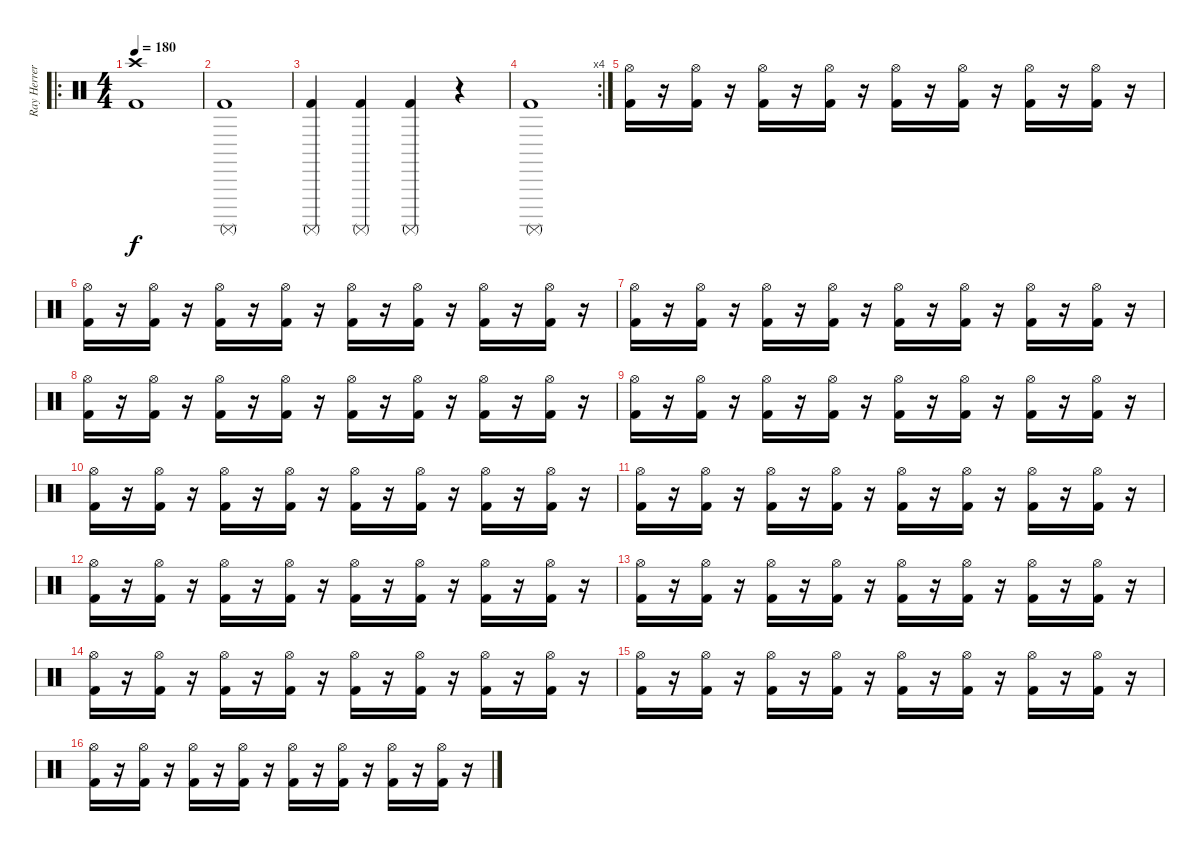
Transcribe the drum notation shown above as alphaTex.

\track ("Ray Herrera" "Ray Herrer") {instrument percussion}
\staff {score}
\articulation defaults
\ro
\ts (4 4)
\tempo 180
\clef neutral
\ks c
("Crash high (hit)" "Kick (hit) 2").1{dy f} |
("Surdo (mute)" "Kick (hit) 2").1 |
("Surdo (mute)" "Kick (hit) 2").4 ("Surdo (mute)" "Kick (hit) 2").4 ("Surdo (mute)" "Kick (hit) 2").4 r.4 |
\rc 4
("Surdo (mute)" "Kick (hit) 2").1 |
("Hi-Hat (open)" "Kick (hit) 2").16 r.16 ("Hi-Hat (open)" "Kick (hit) 2").16 r.16 ("Hi-Hat (open)" "Kick (hit) 2").16 r.16 ("Hi-Hat (open)" "Kick (hit) 2").16 r.16 ("Hi-Hat (open)" "Kick (hit) 2").16 r.16 ("Hi-Hat (open)" "Kick (hit) 2").16 r.16 ("Hi-Hat (open)" "Kick (hit) 2").16 r.16 ("Hi-Hat (open)" "Kick (hit) 2").16 r.16 |
("Hi-Hat (open)" "Kick (hit) 2").16 r.16 ("Hi-Hat (open)" "Kick (hit) 2").16 r.16 ("Hi-Hat (open)" "Kick (hit) 2").16 r.16 ("Hi-Hat (open)" "Kick (hit) 2").16 r.16 ("Hi-Hat (open)" "Kick (hit) 2").16 r.16 ("Hi-Hat (open)" "Kick (hit) 2").16 r.16 ("Hi-Hat (open)" "Kick (hit) 2").16 r.16 ("Hi-Hat (open)" "Kick (hit) 2").16 r.16 |
("Hi-Hat (open)" "Kick (hit) 2").16 r.16 ("Hi-Hat (open)" "Kick (hit) 2").16 r.16 ("Hi-Hat (open)" "Kick (hit) 2").16 r.16 ("Hi-Hat (open)" "Kick (hit) 2").16 r.16 ("Hi-Hat (open)" "Kick (hit) 2").16 r.16 ("Hi-Hat (open)" "Kick (hit) 2").16 r.16 ("Hi-Hat (open)" "Kick (hit) 2").16 r.16 ("Hi-Hat (open)" "Kick (hit) 2").16 r.16 |
("Hi-Hat (open)" "Kick (hit) 2").16 r.16 ("Hi-Hat (open)" "Kick (hit) 2").16 r.16 ("Hi-Hat (open)" "Kick (hit) 2").16 r.16 ("Hi-Hat (open)" "Kick (hit) 2").16 r.16 ("Hi-Hat (open)" "Kick (hit) 2").16 r.16 ("Hi-Hat (open)" "Kick (hit) 2").16 r.16 ("Hi-Hat (open)" "Kick (hit) 2").16 r.16 ("Hi-Hat (open)" "Kick (hit) 2").16 r.16 |
("Hi-Hat (open)" "Kick (hit) 2").16 r.16 ("Hi-Hat (open)" "Kick (hit) 2").16 r.16 ("Hi-Hat (open)" "Kick (hit) 2").16 r.16 ("Hi-Hat (open)" "Kick (hit) 2").16 r.16 ("Hi-Hat (open)" "Kick (hit) 2").16 r.16 ("Hi-Hat (open)" "Kick (hit) 2").16 r.16 ("Hi-Hat (open)" "Kick (hit) 2").16 r.16 ("Hi-Hat (open)" "Kick (hit) 2").16 r.16 |
("Hi-Hat (open)" "Kick (hit) 2").16 r.16 ("Hi-Hat (open)" "Kick (hit) 2").16 r.16 ("Hi-Hat (open)" "Kick (hit) 2").16 r.16 ("Hi-Hat (open)" "Kick (hit) 2").16 r.16 ("Hi-Hat (open)" "Kick (hit) 2").16 r.16 ("Hi-Hat (open)" "Kick (hit) 2").16 r.16 ("Hi-Hat (open)" "Kick (hit) 2").16 r.16 ("Hi-Hat (open)" "Kick (hit) 2").16 r.16 |
("Hi-Hat (open)" "Kick (hit) 2").16 r.16 ("Hi-Hat (open)" "Kick (hit) 2").16 r.16 ("Hi-Hat (open)" "Kick (hit) 2").16 r.16 ("Hi-Hat (open)" "Kick (hit) 2").16 r.16 ("Hi-Hat (open)" "Kick (hit) 2").16 r.16 ("Hi-Hat (open)" "Kick (hit) 2").16 r.16 ("Hi-Hat (open)" "Kick (hit) 2").16 r.16 ("Hi-Hat (open)" "Kick (hit) 2").16 r.16 |
("Hi-Hat (open)" "Kick (hit) 2").16 r.16 ("Hi-Hat (open)" "Kick (hit) 2").16 r.16 ("Hi-Hat (open)" "Kick (hit) 2").16 r.16 ("Hi-Hat (open)" "Kick (hit) 2").16 r.16 ("Hi-Hat (open)" "Kick (hit) 2").16 r.16 ("Hi-Hat (open)" "Kick (hit) 2").16 r.16 ("Hi-Hat (open)" "Kick (hit) 2").16 r.16 ("Hi-Hat (open)" "Kick (hit) 2").16 r.16 |
("Hi-Hat (open)" "Kick (hit) 2").16 r.16 ("Hi-Hat (open)" "Kick (hit) 2").16 r.16 ("Hi-Hat (open)" "Kick (hit) 2").16 r.16 ("Hi-Hat (open)" "Kick (hit) 2").16 r.16 ("Hi-Hat (open)" "Kick (hit) 2").16 r.16 ("Hi-Hat (open)" "Kick (hit) 2").16 r.16 ("Hi-Hat (open)" "Kick (hit) 2").16 r.16 ("Hi-Hat (open)" "Kick (hit) 2").16 r.16 |
("Hi-Hat (open)" "Kick (hit) 2").16 r.16 ("Hi-Hat (open)" "Kick (hit) 2").16 r.16 ("Hi-Hat (open)" "Kick (hit) 2").16 r.16 ("Hi-Hat (open)" "Kick (hit) 2").16 r.16 ("Hi-Hat (open)" "Kick (hit) 2").16 r.16 ("Hi-Hat (open)" "Kick (hit) 2").16 r.16 ("Hi-Hat (open)" "Kick (hit) 2").16 r.16 ("Hi-Hat (open)" "Kick (hit) 2").16 r.16 |
("Hi-Hat (open)" "Kick (hit) 2").16 r.16 ("Hi-Hat (open)" "Kick (hit) 2").16 r.16 ("Hi-Hat (open)" "Kick (hit) 2").16 r.16 ("Hi-Hat (open)" "Kick (hit) 2").16 r.16 ("Hi-Hat (open)" "Kick (hit) 2").16 r.16 ("Hi-Hat (open)" "Kick (hit) 2").16 r.16 ("Hi-Hat (open)" "Kick (hit) 2").16 r.16 ("Hi-Hat (open)" "Kick (hit) 2").16 r.16 |
("Hi-Hat (open)" "Kick (hit) 2").16 r.16 ("Hi-Hat (open)" "Kick (hit) 2").16 r.16 ("Hi-Hat (open)" "Kick (hit) 2").16 r.16 ("Hi-Hat (open)" "Kick (hit) 2").16 r.16 ("Hi-Hat (open)" "Kick (hit) 2").16 r.16 ("Hi-Hat (open)" "Kick (hit) 2").16 r.16 ("Hi-Hat (open)" "Kick (hit) 2").16 r.16 ("Hi-Hat (open)" "Kick (hit) 2").16 r.16
